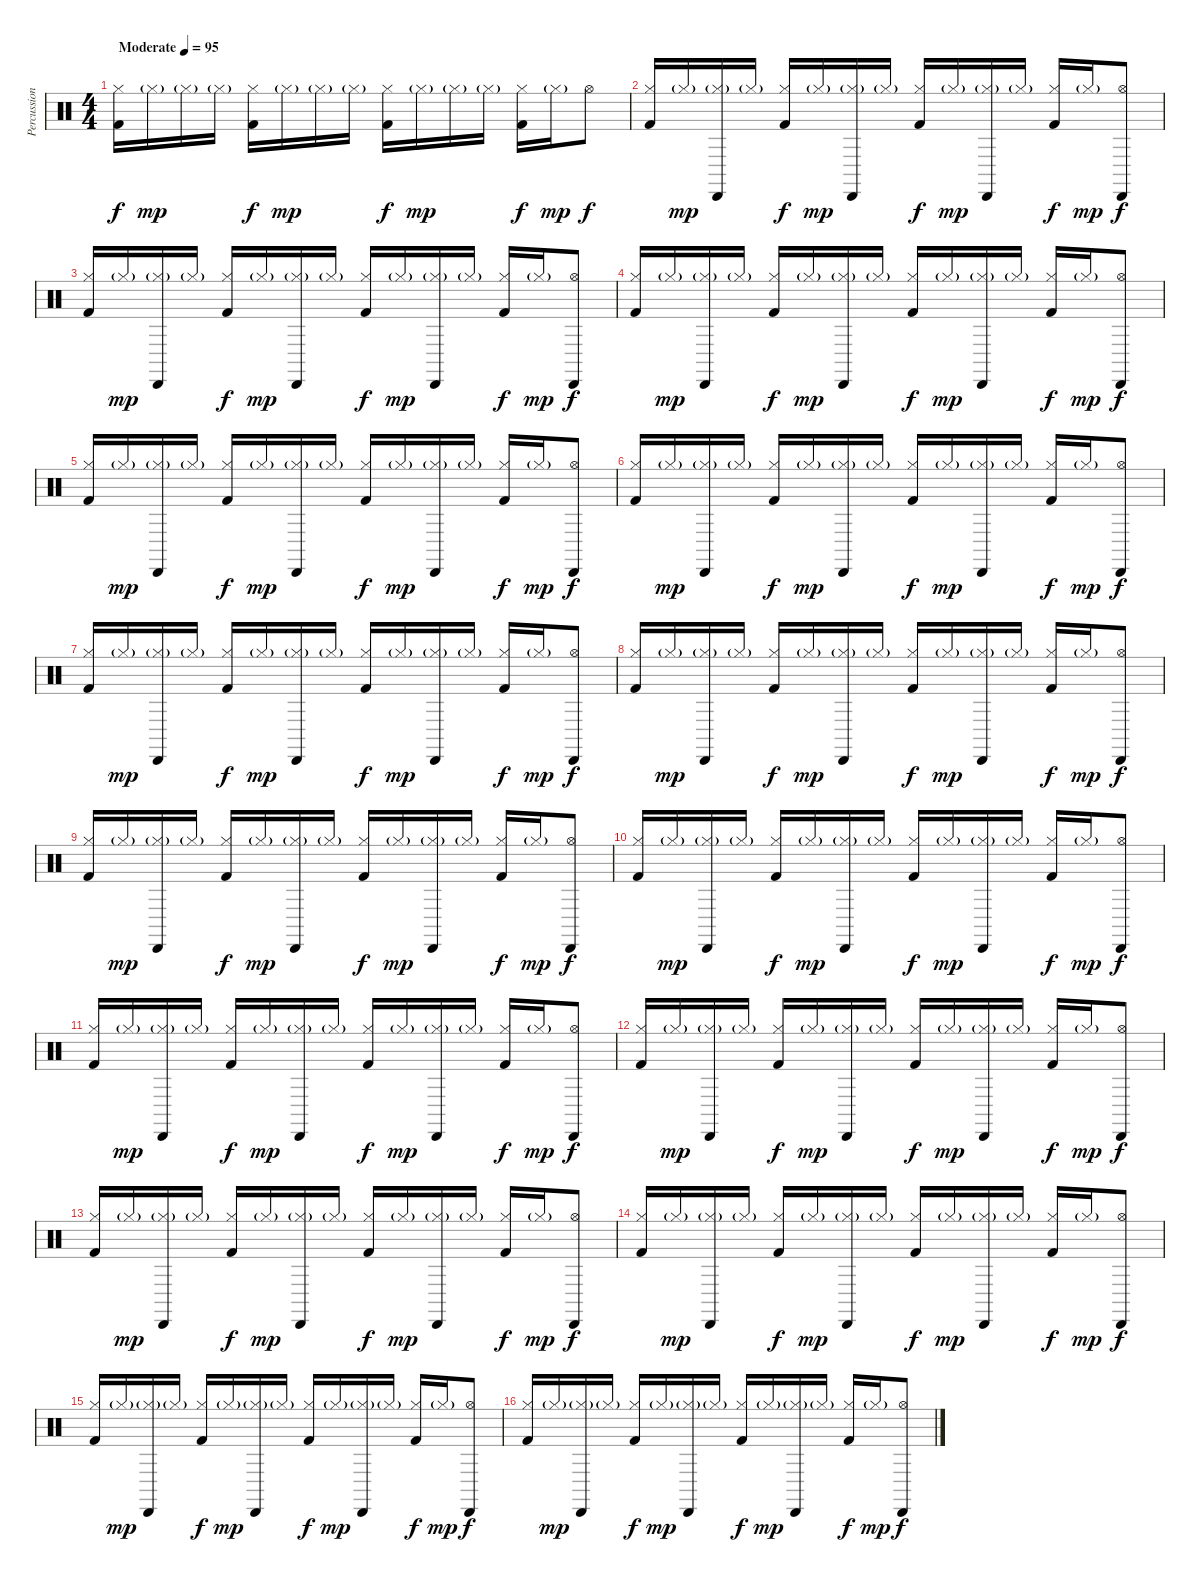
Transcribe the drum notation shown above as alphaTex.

\track ("Percussion" "Percussion") {instrument percussion}
\staff {score}
\articulation defaults
\ts (4 4)
\tempo (95 "Moderate")
\clef neutral
\ks c
("Hi-Hat (closed)" "Kick (hit) 2").16{dy f} "Hi-Hat (closed)"{g}.16{dy mp} "Hi-Hat (closed)"{g}.16 "Hi-Hat (closed)"{g}.16 ("Hi-Hat (closed)" "Kick (hit) 2").16{dy f} "Hi-Hat (closed)"{g}.16{dy mp} "Hi-Hat (closed)"{g}.16 "Hi-Hat (closed)"{g}.16 ("Hi-Hat (closed)" "Kick (hit) 2").16{dy f} "Hi-Hat (closed)"{g}.16{dy mp} "Hi-Hat (closed)"{g}.16 "Hi-Hat (closed)"{g}.16 ("Hi-Hat (closed)" "Kick (hit) 2").16{dy f} "Hi-Hat (closed)"{g}.16{dy mp} "Hi-Hat (open)".8{dy f} |
("Hi-Hat (closed)" "Kick (hit) 2").16 "Hi-Hat (closed)"{g}.16{dy mp} ("Hi-Hat (closed)"{g} "Cabasa (hit)").16 "Hi-Hat (closed)"{g}.16 ("Hi-Hat (closed)" "Kick (hit) 2").16{dy f} "Hi-Hat (closed)"{g}.16{dy mp} ("Hi-Hat (closed)"{g} "Cabasa (hit)").16 "Hi-Hat (closed)"{g}.16 ("Hi-Hat (closed)" "Kick (hit) 2").16{dy f} "Hi-Hat (closed)"{g}.16{dy mp} ("Hi-Hat (closed)"{g} "Cabasa (hit)").16 "Hi-Hat (closed)"{g}.16 ("Hi-Hat (closed)" "Kick (hit) 2").16{dy f} "Hi-Hat (closed)"{g}.16{dy mp} ("Hi-Hat (open)" "Cabasa (hit)").8{dy f} |
("Hi-Hat (closed)" "Kick (hit) 2").16 "Hi-Hat (closed)"{g}.16{dy mp} ("Hi-Hat (closed)"{g} "Cabasa (hit)").16 "Hi-Hat (closed)"{g}.16 ("Hi-Hat (closed)" "Kick (hit) 2").16{dy f} "Hi-Hat (closed)"{g}.16{dy mp} ("Hi-Hat (closed)"{g} "Cabasa (hit)").16 "Hi-Hat (closed)"{g}.16 ("Hi-Hat (closed)" "Kick (hit) 2").16{dy f} "Hi-Hat (closed)"{g}.16{dy mp} ("Hi-Hat (closed)"{g} "Cabasa (hit)").16 "Hi-Hat (closed)"{g}.16 ("Hi-Hat (closed)" "Kick (hit) 2").16{dy f} "Hi-Hat (closed)"{g}.16{dy mp} ("Hi-Hat (open)" "Cabasa (hit)").8{dy f} |
("Hi-Hat (closed)" "Kick (hit) 2").16 "Hi-Hat (closed)"{g}.16{dy mp} ("Hi-Hat (closed)"{g} "Cabasa (hit)").16 "Hi-Hat (closed)"{g}.16 ("Hi-Hat (closed)" "Kick (hit) 2").16{dy f} "Hi-Hat (closed)"{g}.16{dy mp} ("Hi-Hat (closed)"{g} "Cabasa (hit)").16 "Hi-Hat (closed)"{g}.16 ("Hi-Hat (closed)" "Kick (hit) 2").16{dy f} "Hi-Hat (closed)"{g}.16{dy mp} ("Hi-Hat (closed)"{g} "Cabasa (hit)").16 "Hi-Hat (closed)"{g}.16 ("Hi-Hat (closed)" "Kick (hit) 2").16{dy f} "Hi-Hat (closed)"{g}.16{dy mp} ("Hi-Hat (open)" "Cabasa (hit)").8{dy f} |
("Hi-Hat (closed)" "Kick (hit) 2").16 "Hi-Hat (closed)"{g}.16{dy mp} ("Hi-Hat (closed)"{g} "Cabasa (hit)").16 "Hi-Hat (closed)"{g}.16 ("Hi-Hat (closed)" "Kick (hit) 2").16{dy f} "Hi-Hat (closed)"{g}.16{dy mp} ("Hi-Hat (closed)"{g} "Cabasa (hit)").16 "Hi-Hat (closed)"{g}.16 ("Hi-Hat (closed)" "Kick (hit) 2").16{dy f} "Hi-Hat (closed)"{g}.16{dy mp} ("Hi-Hat (closed)"{g} "Cabasa (hit)").16 "Hi-Hat (closed)"{g}.16 ("Hi-Hat (closed)" "Kick (hit) 2").16{dy f} "Hi-Hat (closed)"{g}.16{dy mp} ("Hi-Hat (open)" "Cabasa (hit)").8{dy f} |
("Hi-Hat (closed)" "Kick (hit) 2").16 "Hi-Hat (closed)"{g}.16{dy mp} ("Hi-Hat (closed)"{g} "Cabasa (hit)").16 "Hi-Hat (closed)"{g}.16 ("Hi-Hat (closed)" "Kick (hit) 2").16{dy f} "Hi-Hat (closed)"{g}.16{dy mp} ("Hi-Hat (closed)"{g} "Cabasa (hit)").16 "Hi-Hat (closed)"{g}.16 ("Hi-Hat (closed)" "Kick (hit) 2").16{dy f} "Hi-Hat (closed)"{g}.16{dy mp} ("Hi-Hat (closed)"{g} "Cabasa (hit)").16 "Hi-Hat (closed)"{g}.16 ("Hi-Hat (closed)" "Kick (hit) 2").16{dy f} "Hi-Hat (closed)"{g}.16{dy mp} ("Hi-Hat (open)" "Cabasa (hit)").8{dy f} |
("Hi-Hat (closed)" "Kick (hit) 2").16 "Hi-Hat (closed)"{g}.16{dy mp} ("Hi-Hat (closed)"{g} "Cabasa (hit)").16 "Hi-Hat (closed)"{g}.16 ("Hi-Hat (closed)" "Kick (hit) 2").16{dy f} "Hi-Hat (closed)"{g}.16{dy mp} ("Hi-Hat (closed)"{g} "Cabasa (hit)").16 "Hi-Hat (closed)"{g}.16 ("Hi-Hat (closed)" "Kick (hit) 2").16{dy f} "Hi-Hat (closed)"{g}.16{dy mp} ("Hi-Hat (closed)"{g} "Cabasa (hit)").16 "Hi-Hat (closed)"{g}.16 ("Hi-Hat (closed)" "Kick (hit) 2").16{dy f} "Hi-Hat (closed)"{g}.16{dy mp} ("Hi-Hat (open)" "Cabasa (hit)").8{dy f} |
("Hi-Hat (closed)" "Kick (hit) 2").16 "Hi-Hat (closed)"{g}.16{dy mp} ("Hi-Hat (closed)"{g} "Cabasa (hit)").16 "Hi-Hat (closed)"{g}.16 ("Hi-Hat (closed)" "Kick (hit) 2").16{dy f} "Hi-Hat (closed)"{g}.16{dy mp} ("Hi-Hat (closed)"{g} "Cabasa (hit)").16 "Hi-Hat (closed)"{g}.16 ("Hi-Hat (closed)" "Kick (hit) 2").16{dy f} "Hi-Hat (closed)"{g}.16{dy mp} ("Hi-Hat (closed)"{g} "Cabasa (hit)").16 "Hi-Hat (closed)"{g}.16 ("Hi-Hat (closed)" "Kick (hit) 2").16{dy f} "Hi-Hat (closed)"{g}.16{dy mp} ("Hi-Hat (open)" "Cabasa (hit)").8{dy f} |
("Hi-Hat (closed)" "Kick (hit) 2").16 "Hi-Hat (closed)"{g}.16{dy mp} ("Hi-Hat (closed)"{g} "Cabasa (hit)").16 "Hi-Hat (closed)"{g}.16 ("Hi-Hat (closed)" "Kick (hit) 2").16{dy f} "Hi-Hat (closed)"{g}.16{dy mp} ("Hi-Hat (closed)"{g} "Cabasa (hit)").16 "Hi-Hat (closed)"{g}.16 ("Hi-Hat (closed)" "Kick (hit) 2").16{dy f} "Hi-Hat (closed)"{g}.16{dy mp} ("Hi-Hat (closed)"{g} "Cabasa (hit)").16 "Hi-Hat (closed)"{g}.16 ("Hi-Hat (closed)" "Kick (hit) 2").16{dy f} "Hi-Hat (closed)"{g}.16{dy mp} ("Hi-Hat (open)" "Cabasa (hit)").8{dy f} |
("Hi-Hat (closed)" "Kick (hit) 2").16 "Hi-Hat (closed)"{g}.16{dy mp} ("Hi-Hat (closed)"{g} "Cabasa (hit)").16 "Hi-Hat (closed)"{g}.16 ("Hi-Hat (closed)" "Kick (hit) 2").16{dy f} "Hi-Hat (closed)"{g}.16{dy mp} ("Hi-Hat (closed)"{g} "Cabasa (hit)").16 "Hi-Hat (closed)"{g}.16 ("Hi-Hat (closed)" "Kick (hit) 2").16{dy f} "Hi-Hat (closed)"{g}.16{dy mp} ("Hi-Hat (closed)"{g} "Cabasa (hit)").16 "Hi-Hat (closed)"{g}.16 ("Hi-Hat (closed)" "Kick (hit) 2").16{dy f} "Hi-Hat (closed)"{g}.16{dy mp} ("Hi-Hat (open)" "Cabasa (hit)").8{dy f} |
("Hi-Hat (closed)" "Kick (hit) 2").16 "Hi-Hat (closed)"{g}.16{dy mp} ("Hi-Hat (closed)"{g} "Cabasa (hit)").16 "Hi-Hat (closed)"{g}.16 ("Hi-Hat (closed)" "Kick (hit) 2").16{dy f} "Hi-Hat (closed)"{g}.16{dy mp} ("Hi-Hat (closed)"{g} "Cabasa (hit)").16 "Hi-Hat (closed)"{g}.16 ("Hi-Hat (closed)" "Kick (hit) 2").16{dy f} "Hi-Hat (closed)"{g}.16{dy mp} ("Hi-Hat (closed)"{g} "Cabasa (hit)").16 "Hi-Hat (closed)"{g}.16 ("Hi-Hat (closed)" "Kick (hit) 2").16{dy f} "Hi-Hat (closed)"{g}.16{dy mp} ("Hi-Hat (open)" "Cabasa (hit)").8{dy f} |
("Hi-Hat (closed)" "Kick (hit) 2").16 "Hi-Hat (closed)"{g}.16{dy mp} ("Hi-Hat (closed)"{g} "Cabasa (hit)").16 "Hi-Hat (closed)"{g}.16 ("Hi-Hat (closed)" "Kick (hit) 2").16{dy f} "Hi-Hat (closed)"{g}.16{dy mp} ("Hi-Hat (closed)"{g} "Cabasa (hit)").16 "Hi-Hat (closed)"{g}.16 ("Hi-Hat (closed)" "Kick (hit) 2").16{dy f} "Hi-Hat (closed)"{g}.16{dy mp} ("Hi-Hat (closed)"{g} "Cabasa (hit)").16 "Hi-Hat (closed)"{g}.16 ("Hi-Hat (closed)" "Kick (hit) 2").16{dy f} "Hi-Hat (closed)"{g}.16{dy mp} ("Hi-Hat (open)" "Cabasa (hit)").8{dy f} |
("Hi-Hat (closed)" "Kick (hit) 2").16 "Hi-Hat (closed)"{g}.16{dy mp} ("Hi-Hat (closed)"{g} "Cabasa (hit)").16 "Hi-Hat (closed)"{g}.16 ("Hi-Hat (closed)" "Kick (hit) 2").16{dy f} "Hi-Hat (closed)"{g}.16{dy mp} ("Hi-Hat (closed)"{g} "Cabasa (hit)").16 "Hi-Hat (closed)"{g}.16 ("Hi-Hat (closed)" "Kick (hit) 2").16{dy f} "Hi-Hat (closed)"{g}.16{dy mp} ("Hi-Hat (closed)"{g} "Cabasa (hit)").16 "Hi-Hat (closed)"{g}.16 ("Hi-Hat (closed)" "Kick (hit) 2").16{dy f} "Hi-Hat (closed)"{g}.16{dy mp} ("Hi-Hat (open)" "Cabasa (hit)").8{dy f} |
("Hi-Hat (closed)" "Kick (hit) 2").16 "Hi-Hat (closed)"{g}.16{dy mp} ("Hi-Hat (closed)"{g} "Cabasa (hit)").16 "Hi-Hat (closed)"{g}.16 ("Hi-Hat (closed)" "Kick (hit) 2").16{dy f} "Hi-Hat (closed)"{g}.16{dy mp} ("Hi-Hat (closed)"{g} "Cabasa (hit)").16 "Hi-Hat (closed)"{g}.16 ("Hi-Hat (closed)" "Kick (hit) 2").16{dy f} "Hi-Hat (closed)"{g}.16{dy mp} ("Hi-Hat (closed)"{g} "Cabasa (hit)").16 "Hi-Hat (closed)"{g}.16 ("Hi-Hat (closed)" "Kick (hit) 2").16{dy f} "Hi-Hat (closed)"{g}.16{dy mp} ("Hi-Hat (open)" "Cabasa (hit)").8{dy f} |
("Hi-Hat (closed)" "Kick (hit) 2").16 "Hi-Hat (closed)"{g}.16{dy mp} ("Hi-Hat (closed)"{g} "Cabasa (hit)").16 "Hi-Hat (closed)"{g}.16 ("Hi-Hat (closed)" "Kick (hit) 2").16{dy f} "Hi-Hat (closed)"{g}.16{dy mp} ("Hi-Hat (closed)"{g} "Cabasa (hit)").16 "Hi-Hat (closed)"{g}.16 ("Hi-Hat (closed)" "Kick (hit) 2").16{dy f} "Hi-Hat (closed)"{g}.16{dy mp} ("Hi-Hat (closed)"{g} "Cabasa (hit)").16 "Hi-Hat (closed)"{g}.16 ("Hi-Hat (closed)" "Kick (hit) 2").16{dy f} "Hi-Hat (closed)"{g}.16{dy mp} ("Hi-Hat (open)" "Cabasa (hit)").8{dy f} |
("Hi-Hat (closed)" "Kick (hit) 2").16 "Hi-Hat (closed)"{g}.16{dy mp} ("Hi-Hat (closed)"{g} "Cabasa (hit)").16 "Hi-Hat (closed)"{g}.16 ("Hi-Hat (closed)" "Kick (hit) 2").16{dy f} "Hi-Hat (closed)"{g}.16{dy mp} ("Hi-Hat (closed)"{g} "Cabasa (hit)").16 "Hi-Hat (closed)"{g}.16 ("Hi-Hat (closed)" "Kick (hit) 2").16{dy f} "Hi-Hat (closed)"{g}.16{dy mp} ("Hi-Hat (closed)"{g} "Cabasa (hit)").16 "Hi-Hat (closed)"{g}.16 ("Hi-Hat (closed)" "Kick (hit) 2").16{dy f} "Hi-Hat (closed)"{g}.16{dy mp} ("Hi-Hat (open)" "Cabasa (hit)").8{dy f}
